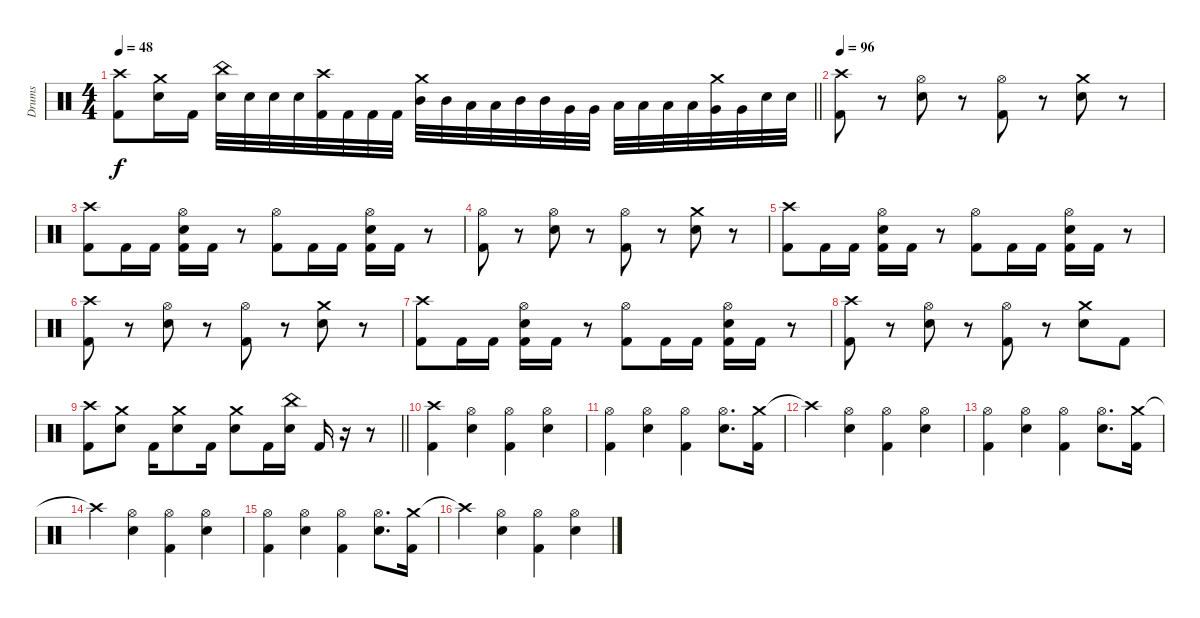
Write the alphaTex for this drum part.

\track ("Drums" "Drums") {instrument percussion}
\staff
\articulation defaults
\ts (4 4)
\tempo 48
\clef neutral
\barLineRight lightlight
\ks c
("Crash high (hit)" "Kick (hit) 2").8{dy f} ("Crash medium (hit)" "Electric Snare (hit)").16 "Kick (hit) 2".16 ("China (hit)" "Electric Snare (hit)").32 "Electric Snare (hit)".32 "Electric Snare (hit)".32 "Electric Snare (hit)".32 ("Crash high (hit)" "Kick (hit) 2").32 "Kick (hit) 2".32 "Kick (hit) 2".32 "Kick (hit) 2".32 ("Crash medium (hit)" "Mid Tom (hit)").32 "Mid Tom (hit)".32 "Low Tom (hit)".32 "Low Tom (hit)".32 "Mid Tom (hit)".32 "Mid Tom (hit)".32 "Very Low Tom (hit)".32 "Very Low Tom (hit)".32 "Low Tom (hit)".32 "Low Tom (hit)".32 "Low Floor Tom (hit)".32 "Low Floor Tom (hit)".32 ("Crash medium (hit)" "Very Low Tom (hit)").32 "Very Low Tom (hit)".32 "Electric Snare (hit)".32 "Electric Snare (hit)".32 |
\section ("" "")
\tempo 96
("Crash high (hit)" "Kick (hit) 2").8{volume 14} r.8 ("Hi-Hat (open)" "Electric Snare (hit)").8 r.8 ("Hi-Hat (open)" "Kick (hit) 2").8 r.8 ("Crash medium (hit)" "Electric Snare (hit)").8 r.8 |
("Crash high (hit)" "Kick (hit) 2").8 "Kick (hit) 2".16 "Kick (hit) 2".16 ("Hi-Hat (open)" "Electric Snare (hit)" "Kick (hit) 2").16 "Kick (hit) 2".16 r.8 ("Hi-Hat (open)" "Kick (hit) 2").8 "Kick (hit) 2".16 "Kick (hit) 2".16 ("Hi-Hat (open)" "Electric Snare (hit)" "Kick (hit) 2").16 "Kick (hit) 2".16 r.8 |
("Hi-Hat (open)" "Kick (hit) 2").8 r.8 ("Hi-Hat (open)" "Electric Snare (hit)").8 r.8 ("Hi-Hat (open)" "Kick (hit) 2").8 r.8 ("Crash medium (hit)" "Electric Snare (hit)").8 r.8 |
("Crash high (hit)" "Kick (hit) 2").8 "Kick (hit) 2".16 "Kick (hit) 2".16 ("Hi-Hat (open)" "Electric Snare (hit)" "Kick (hit) 2").16 "Kick (hit) 2".16 r.8 ("Hi-Hat (open)" "Kick (hit) 2").8 "Kick (hit) 2".16 "Kick (hit) 2".16 ("Hi-Hat (open)" "Electric Snare (hit)" "Kick (hit) 2").16 "Kick (hit) 2".16 r.8 |
("Crash high (hit)" "Kick (hit) 2").8 r.8 ("Hi-Hat (open)" "Electric Snare (hit)").8 r.8 ("Hi-Hat (open)" "Kick (hit) 2").8 r.8 ("Crash medium (hit)" "Electric Snare (hit)").8 r.8 |
("Crash high (hit)" "Kick (hit) 2").8 "Kick (hit) 2".16 "Kick (hit) 2".16 ("Hi-Hat (open)" "Electric Snare (hit)" "Kick (hit) 2").16 "Kick (hit) 2".16 r.8 ("Hi-Hat (open)" "Kick (hit) 2").8 "Kick (hit) 2".16 "Kick (hit) 2".16 ("Hi-Hat (open)" "Electric Snare (hit)" "Kick (hit) 2").16 "Kick (hit) 2".16 r.8 |
("Crash high (hit)" "Kick (hit) 2").8 r.8 ("Hi-Hat (open)" "Electric Snare (hit)").8 r.8 ("Hi-Hat (open)" "Kick (hit) 2").8 r.8 ("Crash medium (hit)" "Electric Snare (hit)").8 "Kick (hit) 2".8 |
\barLineRight lightlight
("Crash high (hit)" "Kick (hit) 2").8 ("Crash medium (hit)" "Electric Snare (hit)").8 "Kick (hit) 2".16 ("Crash medium (hit)" "Electric Snare (hit)").8 "Kick (hit) 2".16 ("Crash medium (hit)" "Electric Snare (hit)").8 "Kick (hit) 2".16 ("China (hit)" "Electric Snare (hit)").16 "Kick (hit) 2".16 r.16 r.8 |
\section ("" "")
("Crash high (hit)" "Kick (hit) 2").4 ("Hi-Hat (open)" "Electric Snare (hit)").4 ("Hi-Hat (open)" "Kick (hit) 2").4 ("Hi-Hat (open)" "Electric Snare (hit)").4 |
("Hi-Hat (open)" "Kick (hit) 2").4 ("Hi-Hat (open)" "Electric Snare (hit)").4 ("Hi-Hat (open)" "Kick (hit) 2").4 ("Hi-Hat (open)" "Electric Snare (hit)").8{d} ("Crash medium (hit)" "Kick (hit) 2").16 |
"Crash high (hit)"{t}.4 ("Hi-Hat (open)" "Electric Snare (hit)").4 ("Hi-Hat (open)" "Kick (hit) 2").4 ("Hi-Hat (open)" "Electric Snare (hit)").4 |
("Hi-Hat (open)" "Kick (hit) 2").4 ("Hi-Hat (open)" "Electric Snare (hit)").4 ("Hi-Hat (open)" "Kick (hit) 2").4 ("Hi-Hat (open)" "Electric Snare (hit)").8{d} ("Crash medium (hit)" "Kick (hit) 2").16 |
"Crash high (hit)"{t}.4 ("Hi-Hat (open)" "Electric Snare (hit)").4 ("Hi-Hat (open)" "Kick (hit) 2").4 ("Hi-Hat (open)" "Electric Snare (hit)").4 |
("Hi-Hat (open)" "Kick (hit) 2").4 ("Hi-Hat (open)" "Electric Snare (hit)").4 ("Hi-Hat (open)" "Kick (hit) 2").4 ("Hi-Hat (open)" "Electric Snare (hit)").8{d} ("Crash medium (hit)" "Kick (hit) 2").16 |
"Crash high (hit)"{t}.4 ("Hi-Hat (open)" "Electric Snare (hit)").4 ("Hi-Hat (open)" "Kick (hit) 2").4 ("Hi-Hat (open)" "Electric Snare (hit)").4
